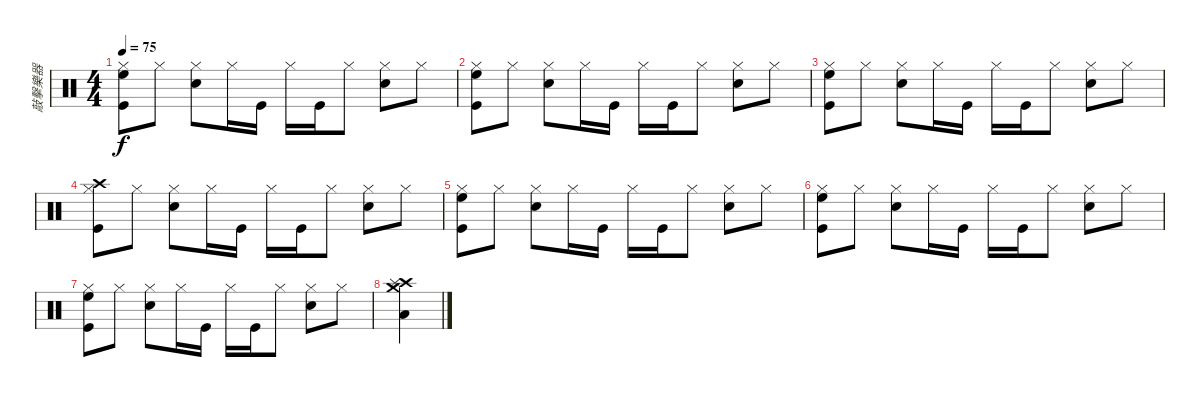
\track ("敲擊樂器" "敲擊樂器") {instrument percussion}
\staff {score}
\articulation defaults
\ts (4 4)
\tempo 75
\clef neutral
\ks c
("Hi-Hat (closed)" "High Floor Tom (hit)" "Kick (hit)").8{dy f} "Hi-Hat (closed)".8 ("Hi-Hat (closed)" "Snare (hit) 2").8 "Hi-Hat (closed)".16 "Kick (hit)".16 "Hi-Hat (closed)".16 "Kick (hit)".16 "Hi-Hat (closed)".8 ("Hi-Hat (closed)" "Snare (hit) 2").8 "Hi-Hat (closed)".8 |
("Hi-Hat (closed)" "High Floor Tom (hit)" "Kick (hit)").8 "Hi-Hat (closed)".8 ("Hi-Hat (closed)" "Snare (hit) 2").8 "Hi-Hat (closed)".16 "Kick (hit)".16 "Hi-Hat (closed)".16 "Kick (hit)".16 "Hi-Hat (closed)".8 ("Hi-Hat (closed)" "Snare (hit) 2").8 "Hi-Hat (closed)".8 |
("Hi-Hat (closed)" "High Floor Tom (hit)" "Kick (hit)").8 "Hi-Hat (closed)".8 ("Hi-Hat (closed)" "Snare (hit) 2").8 "Hi-Hat (closed)".16 "Kick (hit)".16 "Hi-Hat (closed)".16 "Kick (hit)".16 "Hi-Hat (closed)".8 ("Hi-Hat (closed)" "Snare (hit) 2").8 "Hi-Hat (closed)".8 |
("Hi-Hat (closed)" "Crash high (hit)" "Kick (hit)").8 "Hi-Hat (closed)".8 ("Hi-Hat (closed)" "Snare (hit) 2").8 "Hi-Hat (closed)".16 "Kick (hit)".16 "Hi-Hat (closed)".16 "Kick (hit)".16 "Hi-Hat (closed)".8 ("Hi-Hat (closed)" "Snare (hit) 2").8 "Hi-Hat (closed)".8 |
("Hi-Hat (closed)" "High Floor Tom (hit)" "Kick (hit)").8 "Hi-Hat (closed)".8 ("Hi-Hat (closed)" "Snare (hit) 2").8 "Hi-Hat (closed)".16 "Kick (hit)".16 "Hi-Hat (closed)".16 "Kick (hit)".16 "Hi-Hat (closed)".8 ("Hi-Hat (closed)" "Snare (hit) 2").8 "Hi-Hat (closed)".8 |
("Hi-Hat (closed)" "High Floor Tom (hit)" "Kick (hit)").8 "Hi-Hat (closed)".8 ("Hi-Hat (closed)" "Snare (hit) 2").8 "Hi-Hat (closed)".16 "Kick (hit)".16 "Hi-Hat (closed)".16 "Kick (hit)".16 "Hi-Hat (closed)".8 ("Hi-Hat (closed)" "Snare (hit) 2").8 "Hi-Hat (closed)".8 |
("Hi-Hat (closed)" "High Floor Tom (hit)" "Kick (hit)").8 "Hi-Hat (closed)".8 ("Hi-Hat (closed)" "Snare (hit) 2").8 "Hi-Hat (closed)".16 "Kick (hit)".16 "Hi-Hat (closed)".16 "Kick (hit)".16 "Hi-Hat (closed)".8 ("Hi-Hat (closed)" "Snare (hit) 2").8 "Hi-Hat (closed)".8 |
("Crash high (hit)" "Splash (hit)" "Crash medium (hit)" "Low Tom (hit)").4
